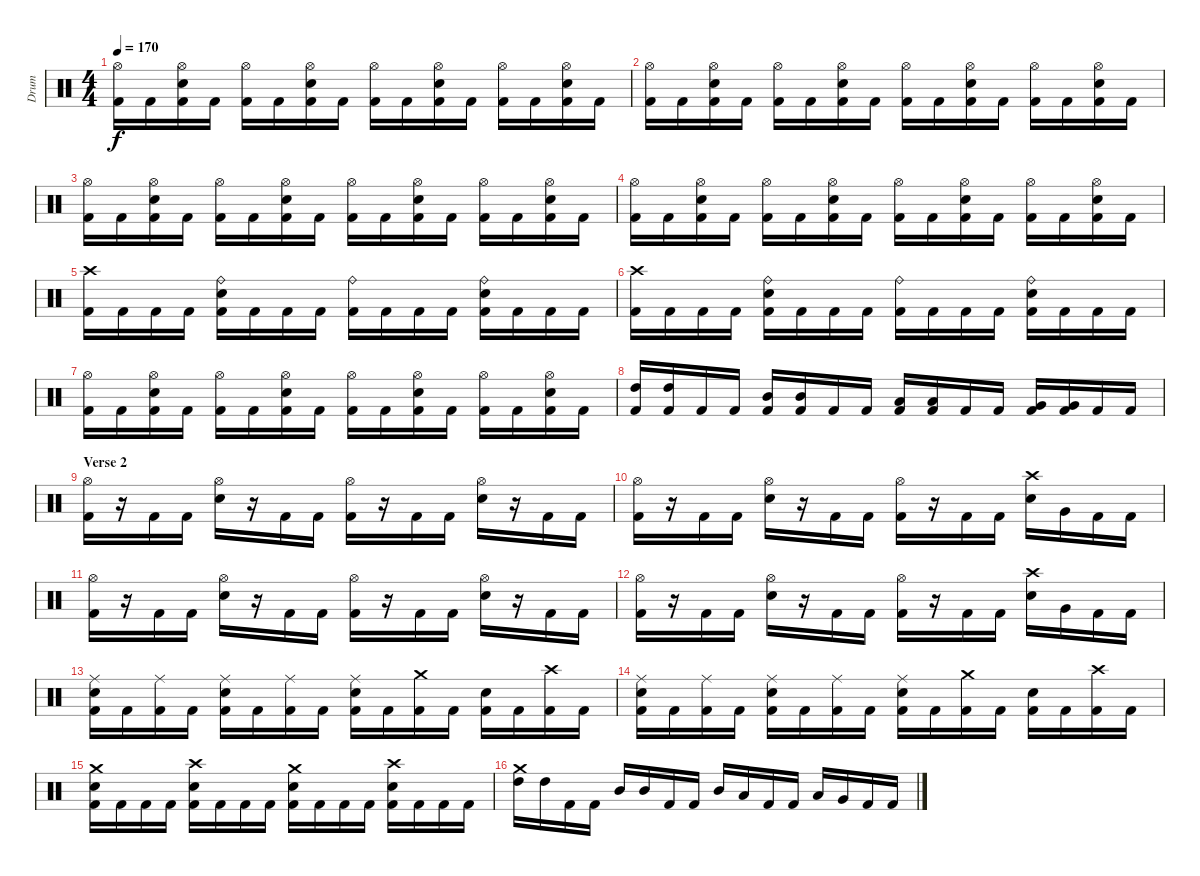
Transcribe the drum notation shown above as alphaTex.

\track ("Drum" "Drum") {instrument percussion}
\staff {score}
\articulation defaults
\ts (4 4)
\tempo 170
\clef neutral
\ks c
("Kick (hit) 2" "Hi-Hat (open)").16{dy f} "Kick (hit) 2".16 ("Electric Snare (hit)" "Kick (hit) 2" "Hi-Hat (open)").16 "Kick (hit) 2".16 ("Kick (hit) 2" "Hi-Hat (open)").16 "Kick (hit) 2".16 ("Electric Snare (hit)" "Kick (hit) 2" "Hi-Hat (open)").16 "Kick (hit) 2".16 ("Kick (hit) 2" "Hi-Hat (open)").16 "Kick (hit) 2".16 ("Electric Snare (hit)" "Kick (hit) 2" "Hi-Hat (open)").16 "Kick (hit) 2".16 ("Kick (hit) 2" "Hi-Hat (open)").16 "Kick (hit) 2".16 ("Kick (hit) 2" "Electric Snare (hit)" "Hi-Hat (open)").16 "Kick (hit) 2".16 |
("Kick (hit) 2" "Hi-Hat (open)").16 "Kick (hit) 2".16 ("Electric Snare (hit)" "Kick (hit) 2" "Hi-Hat (open)").16 "Kick (hit) 2".16 ("Kick (hit) 2" "Hi-Hat (open)").16 "Kick (hit) 2".16 ("Electric Snare (hit)" "Kick (hit) 2" "Hi-Hat (open)").16 "Kick (hit) 2".16 ("Kick (hit) 2" "Hi-Hat (open)").16 "Kick (hit) 2".16 ("Electric Snare (hit)" "Kick (hit) 2" "Hi-Hat (open)").16 "Kick (hit) 2".16 ("Kick (hit) 2" "Hi-Hat (open)").16 "Kick (hit) 2".16 ("Kick (hit) 2" "Electric Snare (hit)" "Hi-Hat (open)").16 "Kick (hit) 2".16 |
("Kick (hit) 2" "Hi-Hat (open)").16 "Kick (hit) 2".16 ("Electric Snare (hit)" "Kick (hit) 2" "Hi-Hat (open)").16 "Kick (hit) 2".16 ("Kick (hit) 2" "Hi-Hat (open)").16 "Kick (hit) 2".16 ("Electric Snare (hit)" "Kick (hit) 2" "Hi-Hat (open)").16 "Kick (hit) 2".16 ("Kick (hit) 2" "Hi-Hat (open)").16 "Kick (hit) 2".16 ("Electric Snare (hit)" "Kick (hit) 2" "Hi-Hat (open)").16 "Kick (hit) 2".16 ("Kick (hit) 2" "Hi-Hat (open)").16 "Kick (hit) 2".16 ("Electric Snare (hit)" "Kick (hit) 2" "Hi-Hat (open)").16 "Kick (hit) 2".16 |
("Kick (hit) 2" "Hi-Hat (open)").16 "Kick (hit) 2".16 ("Electric Snare (hit)" "Kick (hit) 2" "Hi-Hat (open)").16 "Kick (hit) 2".16 ("Kick (hit) 2" "Hi-Hat (open)").16 "Kick (hit) 2".16 ("Electric Snare (hit)" "Kick (hit) 2" "Hi-Hat (open)").16 "Kick (hit) 2".16 ("Kick (hit) 2" "Hi-Hat (open)").16 "Kick (hit) 2".16 ("Electric Snare (hit)" "Kick (hit) 2" "Hi-Hat (open)").16 "Kick (hit) 2".16 ("Kick (hit) 2" "Hi-Hat (open)").16 "Kick (hit) 2".16 ("Kick (hit) 2" "Electric Snare (hit)" "Hi-Hat (open)").16 "Kick (hit) 2".16 |
("Kick (hit) 2" "Crash high (hit)").16 "Kick (hit) 2".16 "Kick (hit) 2".16 "Kick (hit) 2".16 ("Kick (hit) 2" "Electric Snare (hit)" "Ride (bell)").16 "Kick (hit) 2".16 "Kick (hit) 2".16 "Kick (hit) 2".16 ("Kick (hit) 2" "Ride (bell)").16 "Kick (hit) 2".16 "Kick (hit) 2".16 "Kick (hit) 2".16 ("Electric Snare (hit)" "Kick (hit) 2" "Ride (bell)").16 "Kick (hit) 2".16 "Kick (hit) 2".16 "Kick (hit) 2".16 |
("Kick (hit) 2" "Crash high (hit)").16 "Kick (hit) 2".16 "Kick (hit) 2".16 "Kick (hit) 2".16 ("Kick (hit) 2" "Electric Snare (hit)" "Ride (bell)").16 "Kick (hit) 2".16 "Kick (hit) 2".16 "Kick (hit) 2".16 ("Kick (hit) 2" "Ride (bell)").16 "Kick (hit) 2".16 "Kick (hit) 2".16 "Kick (hit) 2".16 ("Electric Snare (hit)" "Kick (hit) 2" "Ride (bell)").16 "Kick (hit) 2".16 "Kick (hit) 2".16 "Kick (hit) 2".16 |
("Kick (hit) 2" "Hi-Hat (open)").16 "Kick (hit) 2".16 ("Electric Snare (hit)" "Kick (hit) 2" "Hi-Hat (open)").16 "Kick (hit) 2".16 ("Kick (hit) 2" "Hi-Hat (open)").16 "Kick (hit) 2".16 ("Electric Snare (hit)" "Kick (hit) 2" "Hi-Hat (open)").16 "Kick (hit) 2".16 ("Kick (hit) 2" "Hi-Hat (open)").16 "Kick (hit) 2".16 ("Kick (hit) 2" "Electric Snare (hit)" "Hi-Hat (open)").16 "Kick (hit) 2".16 ("Kick (hit) 2" "Hi-Hat (open)").16 "Kick (hit) 2".16 ("Kick (hit) 2" "Electric Snare (hit)" "Hi-Hat (open)").16 "Kick (hit) 2".16 |
("Kick (hit) 2" "High Tom (hit)").16 ("Kick (hit) 2" "High Tom (hit)").16 "Kick (hit) 2".16 "Kick (hit) 2".16 ("Kick (hit) 2" "Mid Tom (hit)").16 ("Kick (hit) 2" "Mid Tom (hit)").16 "Kick (hit) 2".16 "Kick (hit) 2".16 ("Kick (hit) 2" "Low Tom (hit)").16 ("Kick (hit) 2" "Low Tom (hit)").16 "Kick (hit) 2".16 "Kick (hit) 2".16 ("Kick (hit) 2" "Very Low Tom (hit)").16 ("Kick (hit) 2" "Very Low Tom (hit)").16 "Kick (hit) 2".16 "Kick (hit) 2".16 |
\section ("" "Verse 2")
("Kick (hit) 2" "Hi-Hat (open)").16 r.16 "Kick (hit) 2".16 "Kick (hit) 2".16 ("Electric Snare (hit)" "Hi-Hat (open)").16 r.16 "Kick (hit) 2".16 "Kick (hit) 2".16 ("Kick (hit) 2" "Hi-Hat (open)").16 r.16 "Kick (hit) 2".16 "Kick (hit) 2".16 ("Electric Snare (hit)" "Hi-Hat (open)").16 r.16 "Kick (hit) 2".16 "Kick (hit) 2".16 |
("Kick (hit) 2" "Hi-Hat (open)").16 r.16 "Kick (hit) 2".16 "Kick (hit) 2".16 ("Electric Snare (hit)" "Hi-Hat (open)").16 r.16 "Kick (hit) 2".16 "Kick (hit) 2".16 ("Kick (hit) 2" "Hi-Hat (open)").16 r.16 "Kick (hit) 2".16 "Kick (hit) 2".16 ("Electric Snare (hit)" "Crash high (hit)").16 "Very Low Tom (hit)".16 "Kick (hit) 2".16 "Kick (hit) 2".16 |
("Kick (hit) 2" "Hi-Hat (open)").16 r.16 "Kick (hit) 2".16 "Kick (hit) 2".16 ("Electric Snare (hit)" "Hi-Hat (open)").16 r.16 "Kick (hit) 2".16 "Kick (hit) 2".16 ("Kick (hit) 2" "Hi-Hat (open)").16 r.16 "Kick (hit) 2".16 "Kick (hit) 2".16 ("Electric Snare (hit)" "Hi-Hat (open)").16 r.16 "Kick (hit) 2".16 "Kick (hit) 2".16 |
("Kick (hit) 2" "Hi-Hat (open)").16 r.16 "Kick (hit) 2".16 "Kick (hit) 2".16 ("Electric Snare (hit)" "Hi-Hat (open)").16 r.16 "Kick (hit) 2".16 "Kick (hit) 2".16 ("Kick (hit) 2" "Hi-Hat (open)").16 r.16 "Kick (hit) 2".16 "Kick (hit) 2".16 ("Electric Snare (hit)" "Crash high (hit)").16 "Very Low Tom (hit)".16 "Kick (hit) 2".16 "Kick (hit) 2".16 |
("Kick (hit) 2" "Electric Snare (hit)" "Ride (middle)").16 "Kick (hit) 2".16 ("Kick (hit) 2" "Ride (middle)").16 "Kick (hit) 2".16 ("Electric Snare (hit)" "Kick (hit) 2" "Ride (middle)").16 "Kick (hit) 2".16 ("Kick (hit) 2" "Ride (middle)").16 "Kick (hit) 2".16 ("Electric Snare (hit)" "Kick (hit) 2" "Ride (middle)").16 "Kick (hit) 2".16 ("Kick (hit) 2" "Crash medium (hit)").16 "Kick (hit) 2".16 ("Kick (hit) 2" "Electric Snare (hit)").16 "Kick (hit) 2".16 ("Kick (hit) 2" "Crash high (hit)").16 "Kick (hit) 2".16 |
("Electric Snare (hit)" "Kick (hit) 2" "Ride (middle)").16 "Kick (hit) 2".16 ("Kick (hit) 2" "Ride (middle)").16 "Kick (hit) 2".16 ("Kick (hit) 2" "Electric Snare (hit)" "Ride (middle)").16 "Kick (hit) 2".16 ("Kick (hit) 2" "Ride (middle)").16 "Kick (hit) 2".16 ("Electric Snare (hit)" "Kick (hit) 2" "Ride (middle)").16 "Kick (hit) 2".16 ("Kick (hit) 2" "Crash medium (hit)").16 "Kick (hit) 2".16 ("Kick (hit) 2" "Electric Snare (hit)").16 "Kick (hit) 2".16 ("Kick (hit) 2" "Crash high (hit)").16 "Kick (hit) 2".16 |
("Electric Snare (hit)" "Kick (hit) 2" "Crash medium (hit)").16 "Kick (hit) 2".16 "Kick (hit) 2".16 "Kick (hit) 2".16 ("Electric Snare (hit)" "Kick (hit) 2" "Crash high (hit)").16 "Kick (hit) 2".16 "Kick (hit) 2".16 "Kick (hit) 2".16 ("Kick (hit) 2" "Electric Snare (hit)" "Crash medium (hit)").16 "Kick (hit) 2".16 "Kick (hit) 2".16 "Kick (hit) 2".16 ("Kick (hit) 2" "Electric Snare (hit)" "Crash high (hit)").16 "Kick (hit) 2".16 "Kick (hit) 2".16 "Kick (hit) 2".16 |
("Crash medium (hit)" "High Tom (hit)").16 "High Tom (hit)".16 "Kick (hit) 2".16 "Kick (hit) 2".16 "Mid Tom (hit)".16 "Mid Tom (hit)".16 "Kick (hit) 2".16 "Kick (hit) 2".16 "Mid Tom (hit)".16 "Low Tom (hit)".16 "Kick (hit) 2".16 "Kick (hit) 2".16 "Low Tom (hit)".16 "Very Low Tom (hit)".16 "Kick (hit) 2".16 "Kick (hit) 2".16
